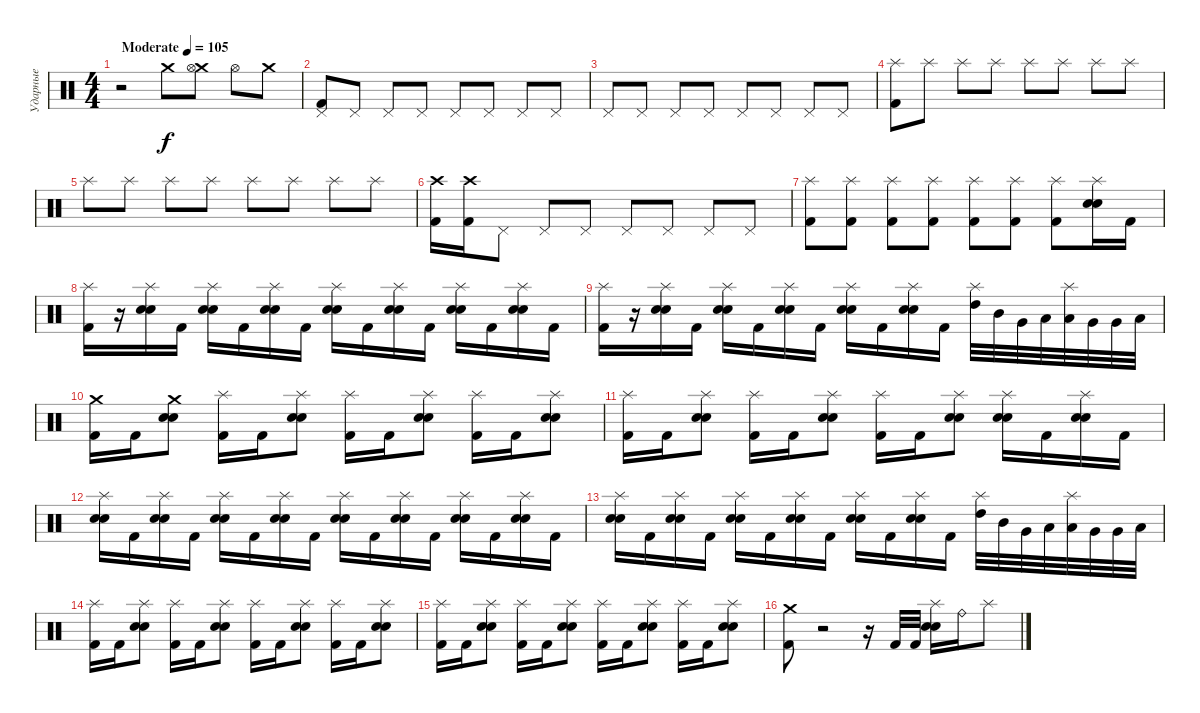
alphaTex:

\track ("Ударные" "Ударные") {instrument percussion}
\staff {score}
\articulation defaults
\ts (4 4)
\tempo (105 "Moderate")
\clef neutral
\ks c
r.2{dy f} "Crash medium (hit)".8 ("Crash medium (hit)" "Hi-Hat (open)").8 "Hi-Hat (open)".8 "Crash medium (hit)".8 |
("Pedal Hi-Hat (hit)" "Kick (hit) 2").8 "Pedal Hi-Hat (hit)".8 "Pedal Hi-Hat (hit)".8 "Pedal Hi-Hat (hit)".8 "Pedal Hi-Hat (hit)".8 "Pedal Hi-Hat (hit)".8 "Pedal Hi-Hat (hit)".8 "Pedal Hi-Hat (hit)".8 |
"Pedal Hi-Hat (hit)".8 "Pedal Hi-Hat (hit)".8 "Pedal Hi-Hat (hit)".8 "Pedal Hi-Hat (hit)".8 "Pedal Hi-Hat (hit)".8 "Pedal Hi-Hat (hit)".8 "Pedal Hi-Hat (hit)".8 "Pedal Hi-Hat (hit)".8 |
("Splash (hit)" "Kick (hit) 2").8 "Splash (hit)".8 "Splash (hit)".8 "Splash (hit)".8 "Splash (hit)".8 "Splash (hit)".8 "Splash (hit)".8 "Splash (hit)".8 |
"Splash (hit)".8 "Splash (hit)".8 "Splash (hit)".8 "Splash (hit)".8 "Splash (hit)".8 "Splash (hit)".8 "Splash (hit)".8 "Splash (hit)".8 |
("Crash high (hit)" "Kick (hit) 2").16 ("Crash high (hit)" "Kick (hit) 2").16 "Pedal Hi-Hat (hit)".8 "Pedal Hi-Hat (hit)".8 "Pedal Hi-Hat (hit)".8 "Pedal Hi-Hat (hit)".8 "Pedal Hi-Hat (hit)".8 "Pedal Hi-Hat (hit)".8 "Pedal Hi-Hat (hit)".8 |
("Splash (hit)" "Kick (hit) 2").8 ("Splash (hit)" "Kick (hit) 2").8 ("Splash (hit)" "Kick (hit) 2").8 ("Splash (hit)" "Kick (hit) 2").8 ("Splash (hit)" "Kick (hit) 2").8 ("Splash (hit)" "Kick (hit) 2").8 ("Splash (hit)" "Kick (hit) 2").8 ("Splash (hit)" "Electric Snare (hit)" "Snare (hit) 2").16 "Kick (hit) 2".16 |
("Splash (hit)" "Kick (hit) 2").16 r.16 ("Splash (hit)" "Electric Snare (hit)" "Snare (hit) 2").16 "Kick (hit) 2".16 ("Splash (hit)" "Electric Snare (hit)" "Snare (hit) 2").16 "Kick (hit) 2".16 ("Splash (hit)" "Electric Snare (hit)" "Snare (hit) 2").16 "Kick (hit) 2".16 ("Splash (hit)" "Electric Snare (hit)" "Snare (hit) 2").16 "Kick (hit) 2".16 ("Splash (hit)" "Electric Snare (hit)" "Snare (hit) 2").16 "Kick (hit) 2".16 ("Splash (hit)" "Electric Snare (hit)" "Snare (hit) 2").16 "Kick (hit) 2".16 ("Splash (hit)" "Electric Snare (hit)" "Snare (hit) 2").16 "Kick (hit) 2".16 |
("Splash (hit)" "Kick (hit) 2").16 r.16 ("Splash (hit)" "Electric Snare (hit)" "Snare (hit) 2").16 "Kick (hit) 2".16 ("Splash (hit)" "Electric Snare (hit)" "Snare (hit) 2").16 "Kick (hit) 2".16 ("Splash (hit)" "Electric Snare (hit)" "Snare (hit) 2").16 "Kick (hit) 2".16 ("Splash (hit)" "Electric Snare (hit)" "Snare (hit) 2").16 "Kick (hit) 2".16 ("Splash (hit)" "Electric Snare (hit)" "Snare (hit) 2").16 "Kick (hit) 2".16 ("Splash (hit)" "High Tom (hit)").32 "Mid Tom (hit)".32 "Very Low Tom (hit)".32 "Low Floor Tom (hit)".32 ("Splash (hit)" "Low Tom (hit)").32 "Very Low Tom (hit)".32 "Very Low Tom (hit)".32 "Low Floor Tom (hit)".32 |
("Crash medium (hit)" "Kick (hit) 2").16 "Kick (hit) 2".16 ("Crash medium (hit)" "Electric Snare (hit)" "Snare (hit) 2").8 ("Splash (hit)" "Kick (hit) 2").16 "Kick (hit) 2".16 ("Splash (hit)" "Electric Snare (hit)" "Snare (hit) 2").8 ("Splash (hit)" "Kick (hit) 2").16 "Kick (hit) 2".16 ("Splash (hit)" "Electric Snare (hit)" "Snare (hit) 2").8 ("Splash (hit)" "Kick (hit) 2").16 "Kick (hit) 2".16 ("Splash (hit)" "Electric Snare (hit)" "Snare (hit) 2").8 |
("Splash (hit)" "Kick (hit) 2").16 "Kick (hit) 2".16 ("Splash (hit)" "Electric Snare (hit)" "Snare (hit) 2").8 ("Splash (hit)" "Kick (hit) 2").16 "Kick (hit) 2".16 ("Splash (hit)" "Electric Snare (hit)" "Snare (hit) 2").8 ("Splash (hit)" "Kick (hit) 2").16 "Kick (hit) 2".16 ("Splash (hit)" "Electric Snare (hit)" "Snare (hit) 2").8 ("Splash (hit)" "Electric Snare (hit)" "Snare (hit) 2").16 "Kick (hit) 2".16 ("Splash (hit)" "Electric Snare (hit)" "Snare (hit) 2").16 "Kick (hit) 2".16 |
("Splash (hit)" "Electric Snare (hit)" "Snare (hit) 2").16 "Kick (hit) 2".16 ("Splash (hit)" "Electric Snare (hit)" "Snare (hit) 2").16 "Kick (hit) 2".16 ("Splash (hit)" "Electric Snare (hit)" "Snare (hit) 2").16 "Kick (hit) 2".16 ("Splash (hit)" "Electric Snare (hit)" "Snare (hit) 2").16 "Kick (hit) 2".16 ("Splash (hit)" "Electric Snare (hit)" "Snare (hit) 2").16 "Kick (hit) 2".16 ("Splash (hit)" "Electric Snare (hit)" "Snare (hit) 2").16 "Kick (hit) 2".16 ("Splash (hit)" "Electric Snare (hit)" "Snare (hit) 2").16 "Kick (hit) 2".16 ("Splash (hit)" "Electric Snare (hit)" "Snare (hit) 2").16 "Kick (hit) 2".16 |
("Splash (hit)" "Electric Snare (hit)" "Snare (hit) 2").16 "Kick (hit) 2".16 ("Splash (hit)" "Electric Snare (hit)" "Snare (hit) 2").16 "Kick (hit) 2".16 ("Splash (hit)" "Electric Snare (hit)" "Snare (hit) 2").16 "Kick (hit) 2".16 ("Splash (hit)" "Electric Snare (hit)" "Snare (hit) 2").16 "Kick (hit) 2".16 ("Splash (hit)" "Electric Snare (hit)" "Snare (hit) 2").16 "Kick (hit) 2".16 ("Splash (hit)" "Electric Snare (hit)" "Snare (hit) 2").16 "Kick (hit) 2".16 ("Splash (hit)" "High Tom (hit)").32 "Mid Tom (hit)".32 "Very Low Tom (hit)".32 "Low Floor Tom (hit)".32 ("Splash (hit)" "Low Tom (hit)").32 "Very Low Tom (hit)".32 "Very Low Tom (hit)".32 "Low Floor Tom (hit)".32 |
("Splash (hit)" "Kick (hit) 2").16 "Kick (hit) 2".16 ("Splash (hit)" "Electric Snare (hit)" "Snare (hit) 2").8 ("Splash (hit)" "Kick (hit) 2").16 "Kick (hit) 2".16 ("Splash (hit)" "Electric Snare (hit)" "Snare (hit) 2").8 ("Splash (hit)" "Kick (hit) 2").16 "Kick (hit) 2".16 ("Splash (hit)" "Electric Snare (hit)" "Snare (hit) 2").8 ("Splash (hit)" "Kick (hit) 2").16 "Kick (hit) 2".16 ("Splash (hit)" "Electric Snare (hit)" "Snare (hit) 2").8 |
("Splash (hit)" "Kick (hit) 2").16 "Kick (hit) 2".16 ("Splash (hit)" "Electric Snare (hit)" "Snare (hit) 2").8 ("Splash (hit)" "Kick (hit) 2").16 "Kick (hit) 2".16 ("Splash (hit)" "Electric Snare (hit)" "Snare (hit) 2").8 ("Splash (hit)" "Kick (hit) 2").16 "Kick (hit) 2".16 ("Splash (hit)" "Electric Snare (hit)" "Snare (hit) 2").8 ("Splash (hit)" "Kick (hit) 2").16 "Kick (hit) 2".16 ("Splash (hit)" "Electric Snare (hit)" "Snare (hit) 2").8 |
("Crash medium (hit)" "Kick (hit) 2").8 r.2 r.16 "Kick (hit) 2".32 "Kick (hit) 2".32 ("Splash (hit)" "Electric Snare (hit)" "Snare (hit) 2").16 "Ride (bell)".16 "Splash (hit)".8
